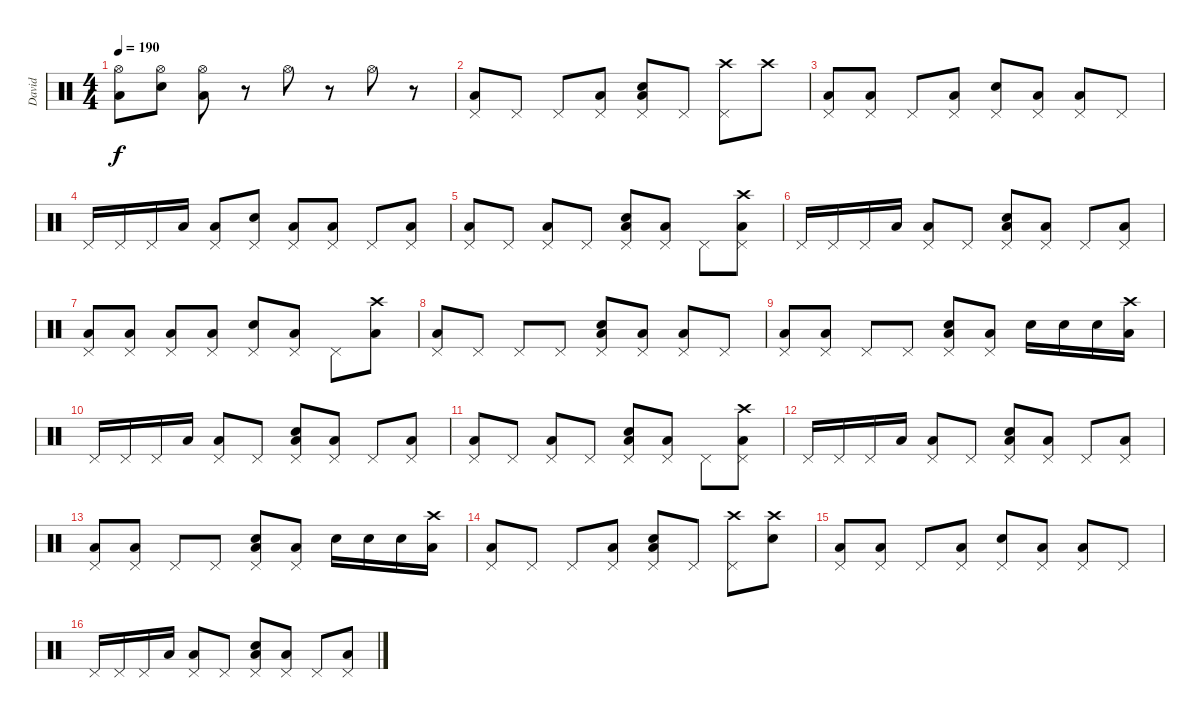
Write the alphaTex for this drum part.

\track ("David" "David") {instrument percussion}
\staff {score}
\articulation defaults
\ts (4 4)
\tempo 190
\clef neutral
\ks c
("Hi-Hat (open)" "Low Tom (hit)").8{dy f} ("Hi-Hat (open)" "Electric Snare (hit)").8 ("Hi-Hat (open)" "Low Tom (hit)").8 r.8 "Hi-Hat (open)".8 r.8 "Hi-Hat (open)".8 r.8 |
("Pedal Hi-Hat (hit)" "Low Tom (hit)").8 "Pedal Hi-Hat (hit)".8 "Pedal Hi-Hat (hit)".8 ("Pedal Hi-Hat (hit)" "Low Tom (hit)").8 ("Pedal Hi-Hat (hit)" "Electric Snare (hit)" "Low Tom (hit)").8 "Pedal Hi-Hat (hit)".8 ("Crash high (hit)" "Pedal Hi-Hat (hit)").8 "Crash high (hit)".8 |
("Pedal Hi-Hat (hit)" "Low Tom (hit)").8 ("Pedal Hi-Hat (hit)" "Low Tom (hit)").8 "Pedal Hi-Hat (hit)".8 ("Pedal Hi-Hat (hit)" "Low Tom (hit)").8 ("Pedal Hi-Hat (hit)" "Electric Snare (hit)").8 ("Pedal Hi-Hat (hit)" "Low Tom (hit)").8 ("Pedal Hi-Hat (hit)" "Low Tom (hit)").8 "Pedal Hi-Hat (hit)".8 |
"Pedal Hi-Hat (hit)".16 "Pedal Hi-Hat (hit)".16 "Pedal Hi-Hat (hit)".16 "Low Tom (hit)".16 ("Pedal Hi-Hat (hit)" "Low Tom (hit)").8 ("Pedal Hi-Hat (hit)" "Electric Snare (hit)").8 ("Pedal Hi-Hat (hit)" "Low Tom (hit)").8 ("Pedal Hi-Hat (hit)" "Low Tom (hit)").8 "Pedal Hi-Hat (hit)".8 ("Pedal Hi-Hat (hit)" "Low Tom (hit)").8 |
("Pedal Hi-Hat (hit)" "Low Tom (hit)").8 "Pedal Hi-Hat (hit)".8 ("Pedal Hi-Hat (hit)" "Low Tom (hit)").8 "Pedal Hi-Hat (hit)".8 ("Pedal Hi-Hat (hit)" "Electric Snare (hit)" "Low Tom (hit)").8 ("Pedal Hi-Hat (hit)" "Low Tom (hit)").8 "Pedal Hi-Hat (hit)".8 ("Crash high (hit)" "Pedal Hi-Hat (hit)" "Low Tom (hit)").8 |
"Pedal Hi-Hat (hit)".16 "Pedal Hi-Hat (hit)".16 "Pedal Hi-Hat (hit)".16 "Low Tom (hit)".16 ("Pedal Hi-Hat (hit)" "Low Tom (hit)").8 "Pedal Hi-Hat (hit)".8 ("Pedal Hi-Hat (hit)" "Electric Snare (hit)" "Low Tom (hit)").8 ("Pedal Hi-Hat (hit)" "Low Tom (hit)").8 "Pedal Hi-Hat (hit)".8 ("Pedal Hi-Hat (hit)" "Low Tom (hit)").8 |
("Pedal Hi-Hat (hit)" "Low Tom (hit)").8 ("Pedal Hi-Hat (hit)" "Low Tom (hit)").8 ("Pedal Hi-Hat (hit)" "Low Tom (hit)").8 ("Pedal Hi-Hat (hit)" "Low Tom (hit)").8 ("Pedal Hi-Hat (hit)" "Electric Snare (hit)").8 ("Pedal Hi-Hat (hit)" "Low Tom (hit)").8 "Pedal Hi-Hat (hit)".8 ("Crash high (hit)" "Low Tom (hit)").8 |
("Pedal Hi-Hat (hit)" "Low Tom (hit)").8 "Pedal Hi-Hat (hit)".8 "Pedal Hi-Hat (hit)".8 "Pedal Hi-Hat (hit)".8 ("Pedal Hi-Hat (hit)" "Electric Snare (hit)" "Low Tom (hit)").8 ("Pedal Hi-Hat (hit)" "Low Tom (hit)").8 ("Pedal Hi-Hat (hit)" "Low Tom (hit)").8 "Pedal Hi-Hat (hit)".8 |
("Pedal Hi-Hat (hit)" "Low Tom (hit)").8 ("Pedal Hi-Hat (hit)" "Low Tom (hit)").8 "Pedal Hi-Hat (hit)".8 "Pedal Hi-Hat (hit)".8 ("Pedal Hi-Hat (hit)" "Electric Snare (hit)" "Low Tom (hit)").8 ("Pedal Hi-Hat (hit)" "Low Tom (hit)").8 "Electric Snare (hit)".16 "Electric Snare (hit)".16 "Electric Snare (hit)".16 ("Crash high (hit)" "Low Tom (hit)").16 |
"Pedal Hi-Hat (hit)".16 "Pedal Hi-Hat (hit)".16 "Pedal Hi-Hat (hit)".16 "Low Tom (hit)".16 ("Pedal Hi-Hat (hit)" "Low Tom (hit)").8 "Pedal Hi-Hat (hit)".8 ("Pedal Hi-Hat (hit)" "Electric Snare (hit)" "Low Tom (hit)").8 ("Pedal Hi-Hat (hit)" "Low Tom (hit)").8 "Pedal Hi-Hat (hit)".8 ("Pedal Hi-Hat (hit)" "Low Tom (hit)").8 |
("Pedal Hi-Hat (hit)" "Low Tom (hit)").8 "Pedal Hi-Hat (hit)".8 ("Pedal Hi-Hat (hit)" "Low Tom (hit)").8 "Pedal Hi-Hat (hit)".8 ("Pedal Hi-Hat (hit)" "Electric Snare (hit)" "Low Tom (hit)").8 ("Pedal Hi-Hat (hit)" "Low Tom (hit)").8 "Pedal Hi-Hat (hit)".8 ("Crash high (hit)" "Pedal Hi-Hat (hit)" "Low Tom (hit)").8 |
"Pedal Hi-Hat (hit)".16 "Pedal Hi-Hat (hit)".16 "Pedal Hi-Hat (hit)".16 "Low Tom (hit)".16 ("Pedal Hi-Hat (hit)" "Low Tom (hit)").8 "Pedal Hi-Hat (hit)".8 ("Pedal Hi-Hat (hit)" "Electric Snare (hit)" "Low Tom (hit)").8 ("Pedal Hi-Hat (hit)" "Low Tom (hit)").8 "Pedal Hi-Hat (hit)".8 ("Pedal Hi-Hat (hit)" "Low Tom (hit)").8 |
("Pedal Hi-Hat (hit)" "Low Tom (hit)").8 ("Pedal Hi-Hat (hit)" "Low Tom (hit)").8 "Pedal Hi-Hat (hit)".8 "Pedal Hi-Hat (hit)".8 ("Pedal Hi-Hat (hit)" "Electric Snare (hit)" "Low Tom (hit)").8 ("Pedal Hi-Hat (hit)" "Low Tom (hit)").8 "Electric Snare (hit)".16 "Electric Snare (hit)".16 "Electric Snare (hit)".16 ("Crash high (hit)" "Low Tom (hit)").16 |
("Pedal Hi-Hat (hit)" "Low Tom (hit)").8 "Pedal Hi-Hat (hit)".8 "Pedal Hi-Hat (hit)".8 ("Pedal Hi-Hat (hit)" "Low Tom (hit)").8 ("Pedal Hi-Hat (hit)" "Electric Snare (hit)" "Low Tom (hit)").8 "Pedal Hi-Hat (hit)".8 ("Crash high (hit)" "Pedal Hi-Hat (hit)").8 ("Crash high (hit)" "Electric Snare (hit)").8 |
("Pedal Hi-Hat (hit)" "Low Tom (hit)").8 ("Pedal Hi-Hat (hit)" "Low Tom (hit)").8 "Pedal Hi-Hat (hit)".8 ("Pedal Hi-Hat (hit)" "Low Tom (hit)").8 ("Pedal Hi-Hat (hit)" "Electric Snare (hit)").8 ("Pedal Hi-Hat (hit)" "Low Tom (hit)").8 ("Pedal Hi-Hat (hit)" "Low Tom (hit)").8 "Pedal Hi-Hat (hit)".8 |
"Pedal Hi-Hat (hit)".16 "Pedal Hi-Hat (hit)".16 "Pedal Hi-Hat (hit)".16 "Low Tom (hit)".16 ("Pedal Hi-Hat (hit)" "Low Tom (hit)").8 "Pedal Hi-Hat (hit)".8 ("Pedal Hi-Hat (hit)" "Electric Snare (hit)" "Low Tom (hit)").8 ("Pedal Hi-Hat (hit)" "Low Tom (hit)").8 "Pedal Hi-Hat (hit)".8 ("Pedal Hi-Hat (hit)" "Low Tom (hit)").8
